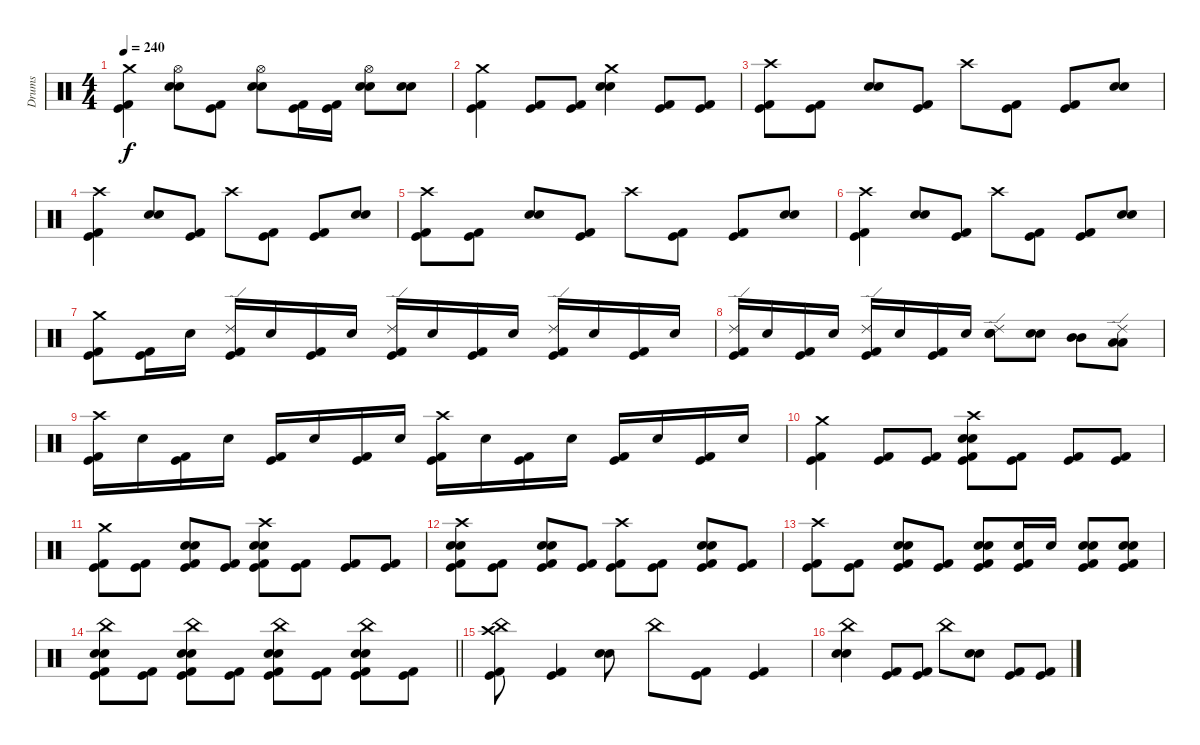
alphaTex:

\track ("Drums" "Drums") {instrument percussion bank 10}
\staff {score}
\articulation defaults
\ts (4 4)
\tempo 240
\clef neutral
\ks c
("Crash medium (hit)" "Kick (hit) 2" "Kick (hit)").4{dy f} ("Hi-Hat (open)" "Electric Snare (hit)" "Electric Snare (hit)").8 ("Kick (hit) 2" "Kick (hit)").8 ("Hi-Hat (open)" "Electric Snare (hit)" "Electric Snare (hit)").8 ("Kick (hit) 2" "Kick (hit)").16 ("Kick (hit) 2" "Kick (hit)").16 ("Hi-Hat (open)" "Electric Snare (hit)" "Electric Snare (hit)").8 ("Electric Snare (hit)" "Electric Snare (hit)").8 |
("Crash medium (hit)" "Kick (hit) 2" "Kick (hit)").4 ("Kick (hit) 2" "Kick (hit)").8 ("Kick (hit) 2" "Kick (hit)").8 ("Crash medium (hit)" "Electric Snare (hit)" "Electric Snare (hit)").4 ("Kick (hit) 2" "Kick (hit)").8 ("Kick (hit) 2" "Kick (hit)").8 |
("Crash high (hit)" "Kick (hit) 2" "Kick (hit)").8 ("Kick (hit) 2" "Kick (hit)").8 ("Electric Snare (hit)" "Electric Snare (hit)").8 ("Kick (hit) 2" "Kick (hit)").8 "Crash high (hit)".8 ("Kick (hit) 2" "Kick (hit)").8 ("Kick (hit) 2" "Kick (hit)").8 ("Electric Snare (hit)" "Electric Snare (hit)").8 |
("Crash high (hit)" "Kick (hit) 2" "Kick (hit)").4 ("Electric Snare (hit)" "Electric Snare (hit)").8 ("Kick (hit) 2" "Kick (hit)").8 "Crash high (hit)".8 ("Kick (hit) 2" "Kick (hit)").8 ("Kick (hit) 2" "Kick (hit)").8 ("Electric Snare (hit)" "Electric Snare (hit)").8 |
("Crash high (hit)" "Kick (hit) 2" "Kick (hit)").8 ("Kick (hit) 2" "Kick (hit)").8 ("Electric Snare (hit)" "Electric Snare (hit)").8 ("Kick (hit) 2" "Kick (hit)").8 "Crash high (hit)".8 ("Kick (hit) 2" "Kick (hit)").8 ("Kick (hit) 2" "Kick (hit)").8 ("Electric Snare (hit)" "Electric Snare (hit)").8 |
("Crash high (hit)" "Kick (hit) 2" "Kick (hit)").4 ("Electric Snare (hit)" "Electric Snare (hit)").8 ("Kick (hit) 2" "Kick (hit)").8 "Crash high (hit)".8 ("Kick (hit) 2" "Kick (hit)").8 ("Kick (hit) 2" "Kick (hit)").8 ("Electric Snare (hit)" "Electric Snare (hit)").8 |
("Crash medium (hit)" "Kick (hit) 2" "Kick (hit)").8 ("Kick (hit) 2" "Kick (hit)").16 "Electric Snare (hit)".16 ("Ride (edge) 2" "Kick (hit) 2" "Kick (hit)").16 "Electric Snare (hit)".16 ("Kick (hit) 2" "Kick (hit)").16 "Electric Snare (hit)".16 ("Ride (edge) 2" "Kick (hit) 2" "Kick (hit)").16 "Electric Snare (hit)".16 ("Kick (hit) 2" "Kick (hit)").16 "Electric Snare (hit)".16 ("Ride (edge) 2" "Kick (hit) 2" "Kick (hit)").16 "Electric Snare (hit)".16 ("Kick (hit) 2" "Kick (hit)").16 "Electric Snare (hit)".16 |
("Ride (edge) 2" "Kick (hit) 2" "Kick (hit)").16 "Electric Snare (hit)".16 ("Kick (hit) 2" "Kick (hit)").16 "Electric Snare (hit)".16 ("Ride (edge) 2" "Kick (hit) 2" "Kick (hit)").16 "Electric Snare (hit)".16 ("Kick (hit) 2" "Kick (hit)").16 "Electric Snare (hit)".16 ("Ride (edge) 2" "Electric Snare (hit)" "Electric Snare (hit)").8 ("Electric Snare (hit)" "Electric Snare (hit)").8 ("Mid Tom (hit)" "Mid Tom (hit)").8 ("Ride (edge) 2" "Low Tom (hit)" "Low Tom (hit)").8 |
("Crash high (hit)" "Kick (hit) 2" "Kick (hit)").16 "Electric Snare (hit)".16 ("Kick (hit) 2" "Kick (hit)").16 "Electric Snare (hit)".16 ("Kick (hit) 2" "Kick (hit)").16 "Electric Snare (hit)".16 ("Kick (hit) 2" "Kick (hit)").16 "Electric Snare (hit)".16 ("Crash high (hit)" "Kick (hit) 2" "Kick (hit)").16 "Electric Snare (hit)".16 ("Kick (hit) 2" "Kick (hit)").16 "Electric Snare (hit)".16 ("Kick (hit) 2" "Kick (hit)").16 "Electric Snare (hit)".16 ("Kick (hit) 2" "Kick (hit)").16 "Electric Snare (hit)".16 |
("Crash medium (hit)" "Kick (hit) 2" "Kick (hit)").4 ("Kick (hit) 2" "Kick (hit)").8 ("Kick (hit) 2" "Kick (hit)").8 ("Crash high (hit)" "Electric Snare (hit)" "Electric Snare (hit)" "Kick (hit) 2" "Kick (hit)").8 ("Kick (hit) 2" "Kick (hit)").8 ("Kick (hit) 2" "Kick (hit)").8 ("Kick (hit) 2" "Kick (hit)").8 |
("Crash medium (hit)" "Kick (hit) 2" "Kick (hit)").8 ("Kick (hit) 2" "Kick (hit)").8 ("Electric Snare (hit)" "Electric Snare (hit)" "Kick (hit) 2" "Kick (hit)").8 ("Kick (hit) 2" "Kick (hit)").8 ("Crash high (hit)" "Electric Snare (hit)" "Electric Snare (hit)" "Kick (hit) 2" "Kick (hit)").8 ("Kick (hit) 2" "Kick (hit)").8 ("Kick (hit) 2" "Kick (hit)").8 ("Kick (hit) 2" "Kick (hit)").8 |
("Crash high (hit)" "Electric Snare (hit)" "Electric Snare (hit)" "Kick (hit) 2" "Kick (hit)").8 ("Kick (hit) 2" "Kick (hit)").8 ("Electric Snare (hit)" "Electric Snare (hit)" "Kick (hit) 2" "Kick (hit)").8 ("Kick (hit) 2" "Kick (hit)").8 ("Crash high (hit)" "Kick (hit) 2" "Kick (hit)").8 ("Kick (hit) 2" "Kick (hit)").8 ("Electric Snare (hit)" "Electric Snare (hit)" "Kick (hit) 2" "Kick (hit)").8 ("Kick (hit) 2" "Kick (hit)").8 |
("Crash high (hit)" "Kick (hit) 2" "Kick (hit)").8 ("Kick (hit) 2" "Kick (hit)").8 ("Electric Snare (hit)" "Electric Snare (hit)" "Kick (hit) 2" "Kick (hit)").8 ("Kick (hit) 2" "Kick (hit)").8 ("Electric Snare (hit)" "Electric Snare (hit)" "Kick (hit) 2" "Kick (hit)").8 ("Electric Snare (hit)" "Kick (hit) 2" "Kick (hit)").16 "Electric Snare (hit)".16 ("Electric Snare (hit)" "Electric Snare (hit)" "Kick (hit) 2" "Kick (hit)").8 ("Electric Snare (hit)" "Electric Snare (hit)" "Kick (hit) 2" "Kick (hit)").8 |
\barLineRight lightlight
("China (hit)" "Electric Snare (hit)" "Electric Snare (hit)" "Kick (hit) 2" "Kick (hit)").8 ("Kick (hit) 2" "Kick (hit)").8 ("China (hit)" "Electric Snare (hit)" "Electric Snare (hit)" "Kick (hit) 2" "Kick (hit)").8 ("Kick (hit) 2" "Kick (hit)").8 ("China (hit)" "Electric Snare (hit)" "Electric Snare (hit)" "Kick (hit) 2" "Kick (hit)").8 ("Kick (hit) 2" "Kick (hit)").8 ("China (hit)" "Electric Snare (hit)" "Electric Snare (hit)" "Kick (hit) 2" "Kick (hit)").8 ("Kick (hit) 2" "Kick (hit)").8 |
("Crash high (hit)" "China (hit)" "Kick (hit) 2" "Kick (hit)").8 ("Kick (hit) 2" "Kick (hit)").4 ("Electric Snare (hit)" "Electric Snare (hit)").8 "China (hit)".8 ("Kick (hit) 2" "Kick (hit)").8 ("Kick (hit) 2" "Kick (hit)").4 |
("China (hit)" "Electric Snare (hit)" "Electric Snare (hit)").4 ("Kick (hit) 2" "Kick (hit)").8 ("Kick (hit) 2" "Kick (hit)").8 "China (hit)".8 ("Electric Snare (hit)" "Electric Snare (hit)").8 ("Kick (hit) 2" "Kick (hit)").8 ("Kick (hit) 2" "Kick (hit)").8
